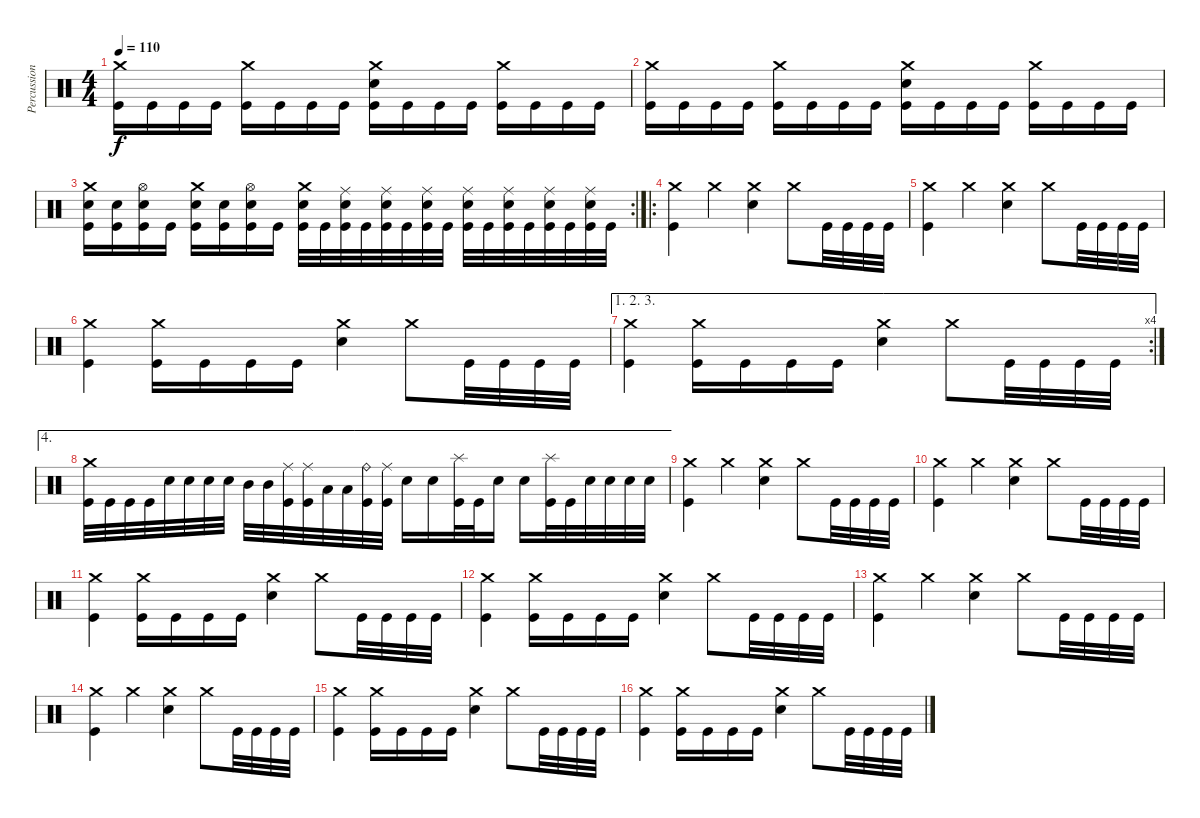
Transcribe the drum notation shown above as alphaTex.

\track ("Percussion" "Percussion") {instrument percussion}
\staff {score}
\articulation defaults
\ts (4 4)
\tempo 110
\clef neutral
\ks c
("Crash medium (hit)" "Kick (hit)").16{dy f} "Kick (hit)".16 "Kick (hit)".16 "Kick (hit)".16 ("Crash medium (hit)" "Kick (hit)").16 "Kick (hit)".16 "Kick (hit)".16 "Kick (hit)".16 ("Electric Snare (hit)" "Crash medium (hit)" "Kick (hit)").16 "Kick (hit)".16 "Kick (hit)".16 "Kick (hit)".16 ("Crash medium (hit)" "Kick (hit)").16 "Kick (hit)".16 "Kick (hit)".16 "Kick (hit)".16 |
("Crash medium (hit)" "Kick (hit)").16 "Kick (hit)".16 "Kick (hit)".16 "Kick (hit)".16 ("Crash medium (hit)" "Kick (hit)").16 "Kick (hit)".16 "Kick (hit)".16 "Kick (hit)".16 ("Electric Snare (hit)" "Crash medium (hit)" "Kick (hit)").16 "Kick (hit)".16 "Kick (hit)".16 "Kick (hit)".16 ("Crash medium (hit)" "Kick (hit)").16 "Kick (hit)".16 "Kick (hit)".16 "Kick (hit)".16 |
\rc 2
("Crash medium (hit)" "Electric Snare (hit)" "Kick (hit)").16 ("Electric Snare (hit)" "Kick (hit)").16 ("Hi-Hat (open)" "Electric Snare (hit)" "Kick (hit)").16 "Kick (hit)".16 ("Crash medium (hit)" "Electric Snare (hit)" "Kick (hit)").16 ("Electric Snare (hit)" "Kick (hit)").16 ("Hi-Hat (open)" "Electric Snare (hit)" "Kick (hit)").16 "Kick (hit)".16 ("Crash medium (hit)" "Electric Snare (hit)" "Kick (hit)").32 "Kick (hit)".32 ("Ride (middle)" "Electric Snare (hit)" "Kick (hit)").32 "Kick (hit)".32 ("Ride (middle)" "Electric Snare (hit)" "Kick (hit)").32 "Kick (hit)".32 ("Ride (middle)" "Electric Snare (hit)" "Kick (hit)").32 "Kick (hit)".32 ("Ride (middle)" "Electric Snare (hit)" "Kick (hit)").32 "Kick (hit)".32 ("Ride (middle)" "Electric Snare (hit)" "Kick (hit)").32 "Kick (hit)".32 ("Ride (middle)" "Electric Snare (hit)" "Kick (hit)").32 "Kick (hit)".32 ("Ride (middle)" "Electric Snare (hit)" "Kick (hit)").32 "Kick (hit)".32 |
\ro
("Crash medium (hit)" "Kick (hit)").4 "Crash medium (hit)".4 ("Crash medium (hit)" "Electric Snare (hit)").4 "Crash medium (hit)".8 "Kick (hit)".32 "Kick (hit)".32 "Kick (hit)".32 "Kick (hit)".32 |
("Crash medium (hit)" "Kick (hit)").4 "Crash medium (hit)".4 ("Crash medium (hit)" "Electric Snare (hit)").4 "Crash medium (hit)".8 "Kick (hit)".32 "Kick (hit)".32 "Kick (hit)".32 "Kick (hit)".32 |
("Crash medium (hit)" "Kick (hit)").4 ("Crash medium (hit)" "Kick (hit)").16 "Kick (hit)".16 "Kick (hit)".16 "Kick (hit)".16 ("Crash medium (hit)" "Electric Snare (hit)").4 "Crash medium (hit)".8 "Kick (hit)".32 "Kick (hit)".32 "Kick (hit)".32 "Kick (hit)".32 |
\ae (1 2 3)
\rc 4
("Crash medium (hit)" "Kick (hit)").4 ("Crash medium (hit)" "Kick (hit)").16 "Kick (hit)".16 "Kick (hit)".16 "Kick (hit)".16 ("Crash medium (hit)" "Electric Snare (hit)").4 "Crash medium (hit)".8 "Kick (hit)".32 "Kick (hit)".32 "Kick (hit)".32 "Kick (hit)".32 |
\ae 4
("Crash medium (hit)" "Kick (hit)").32 "Kick (hit)".32 "Kick (hit)".32 "Kick (hit)".32 "Electric Snare (hit)".32 "Electric Snare (hit)".32 "Electric Snare (hit)".32 "Electric Snare (hit)".32 "Mid Tom (hit)".32 "Mid Tom (hit)".32 ("Ride (middle)" "Kick (hit)").32 ("Ride (middle)" "Kick (hit)").32 "Low Tom (hit)".32 "Low Tom (hit)".32 ("Ride (bell)" "Kick (hit)").32 ("Ride (middle)" "Kick (hit)").32 "Electric Snare (hit)".16 "Electric Snare (hit)".16 ("Splash (hit)" "Kick (hit)").32 "Kick (hit)".32 "Electric Snare (hit)".16 "Electric Snare (hit)".16 ("Splash (hit)" "Kick (hit)").32 "Kick (hit)".32 "Electric Snare (hit)".32 "Electric Snare (hit)".32 "Electric Snare (hit)".32 "Electric Snare (hit)".32 |
("Crash medium (hit)" "Kick (hit)").4 "Crash medium (hit)".4 ("Crash medium (hit)" "Electric Snare (hit)").4 "Crash medium (hit)".8 "Kick (hit)".32 "Kick (hit)".32 "Kick (hit)".32 "Kick (hit)".32 |
("Crash medium (hit)" "Kick (hit)").4 "Crash medium (hit)".4 ("Crash medium (hit)" "Electric Snare (hit)").4 "Crash medium (hit)".8 "Kick (hit)".32 "Kick (hit)".32 "Kick (hit)".32 "Kick (hit)".32 |
("Crash medium (hit)" "Kick (hit)").4 ("Crash medium (hit)" "Kick (hit)").16 "Kick (hit)".16 "Kick (hit)".16 "Kick (hit)".16 ("Crash medium (hit)" "Electric Snare (hit)").4 "Crash medium (hit)".8 "Kick (hit)".32 "Kick (hit)".32 "Kick (hit)".32 "Kick (hit)".32 |
("Crash medium (hit)" "Kick (hit)").4 ("Crash medium (hit)" "Kick (hit)").16 "Kick (hit)".16 "Kick (hit)".16 "Kick (hit)".16 ("Crash medium (hit)" "Electric Snare (hit)").4 "Crash medium (hit)".8 "Kick (hit)".32 "Kick (hit)".32 "Kick (hit)".32 "Kick (hit)".32 |
("Crash medium (hit)" "Kick (hit)").4 "Crash medium (hit)".4 ("Crash medium (hit)" "Electric Snare (hit)").4 "Crash medium (hit)".8 "Kick (hit)".32 "Kick (hit)".32 "Kick (hit)".32 "Kick (hit)".32 |
("Crash medium (hit)" "Kick (hit)").4 "Crash medium (hit)".4 ("Crash medium (hit)" "Electric Snare (hit)").4 "Crash medium (hit)".8 "Kick (hit)".32 "Kick (hit)".32 "Kick (hit)".32 "Kick (hit)".32 |
("Crash medium (hit)" "Kick (hit)").4 ("Crash medium (hit)" "Kick (hit)").16 "Kick (hit)".16 "Kick (hit)".16 "Kick (hit)".16 ("Crash medium (hit)" "Electric Snare (hit)").4 "Crash medium (hit)".8 "Kick (hit)".32 "Kick (hit)".32 "Kick (hit)".32 "Kick (hit)".32 |
("Crash medium (hit)" "Kick (hit)").4 ("Crash medium (hit)" "Kick (hit)").16 "Kick (hit)".16 "Kick (hit)".16 "Kick (hit)".16 ("Crash medium (hit)" "Electric Snare (hit)").4 "Crash medium (hit)".8 "Kick (hit)".32 "Kick (hit)".32 "Kick (hit)".32 "Kick (hit)".32
